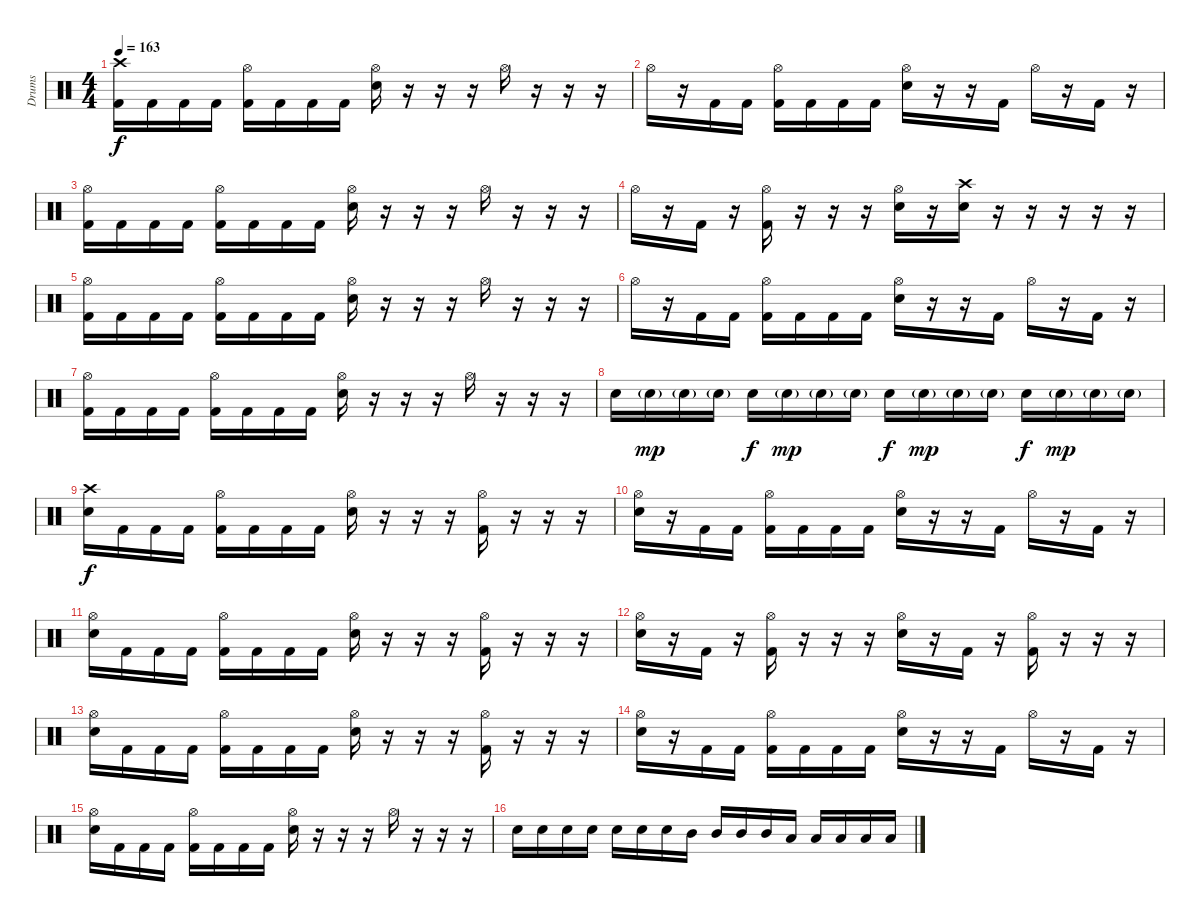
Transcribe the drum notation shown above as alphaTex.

\track ("Drums" "Drums") {instrument percussion}
\staff {score}
\articulation defaults
\ts (4 4)
\tempo 163
\clef neutral
\ks c
("Crash high (hit)" "Kick (hit) 2").16{dy f} "Kick (hit) 2".16 "Kick (hit) 2".16 "Kick (hit) 2".16 ("Hi-Hat (open)" "Kick (hit) 2").16 "Kick (hit) 2".16 "Kick (hit) 2".16 "Kick (hit) 2".16 ("Hi-Hat (open)" "Electric Snare (hit)").16 r.16 r.16 r.16 "Hi-Hat (open)".16 r.16 r.16 r.16 |
"Hi-Hat (open)".16 r.16 "Kick (hit) 2".16 "Kick (hit) 2".16 ("Hi-Hat (open)" "Kick (hit) 2").16 "Kick (hit) 2".16 "Kick (hit) 2".16 "Kick (hit) 2".16 ("Hi-Hat (open)" "Electric Snare (hit)").16 r.16 r.16 "Kick (hit) 2".16 "Hi-Hat (open)".16 r.16 "Kick (hit) 2".16 r.16 |
("Hi-Hat (open)" "Kick (hit) 2").16 "Kick (hit) 2".16 "Kick (hit) 2".16 "Kick (hit) 2".16 ("Hi-Hat (open)" "Kick (hit) 2").16 "Kick (hit) 2".16 "Kick (hit) 2".16 "Kick (hit) 2".16 ("Hi-Hat (open)" "Electric Snare (hit)").16 r.16 r.16 r.16 "Hi-Hat (open)".16 r.16 r.16 r.16 |
"Hi-Hat (open)".16 r.16 "Kick (hit) 2".16 r.16 ("Hi-Hat (open)" "Kick (hit) 2").16 r.16 r.16 r.16 ("Hi-Hat (open)" "Electric Snare (hit)").16 r.16 ("Crash high (hit)" "Electric Snare (hit)").16 r.16 r.16 r.16 r.16 r.16 |
("Hi-Hat (open)" "Kick (hit) 2").16 "Kick (hit) 2".16 "Kick (hit) 2".16 "Kick (hit) 2".16 ("Hi-Hat (open)" "Kick (hit) 2").16 "Kick (hit) 2".16 "Kick (hit) 2".16 "Kick (hit) 2".16 ("Hi-Hat (open)" "Electric Snare (hit)").16 r.16 r.16 r.16 "Hi-Hat (open)".16 r.16 r.16 r.16 |
"Hi-Hat (open)".16 r.16 "Kick (hit) 2".16 "Kick (hit) 2".16 ("Hi-Hat (open)" "Kick (hit) 2").16 "Kick (hit) 2".16 "Kick (hit) 2".16 "Kick (hit) 2".16 ("Hi-Hat (open)" "Electric Snare (hit)").16 r.16 r.16 "Kick (hit) 2".16 "Hi-Hat (open)".16 r.16 "Kick (hit) 2".16 r.16 |
("Hi-Hat (open)" "Kick (hit) 2").16 "Kick (hit) 2".16 "Kick (hit) 2".16 "Kick (hit) 2".16 ("Hi-Hat (open)" "Kick (hit) 2").16 "Kick (hit) 2".16 "Kick (hit) 2".16 "Kick (hit) 2".16 ("Hi-Hat (open)" "Electric Snare (hit)").16 r.16 r.16 r.16 "Hi-Hat (open)".16 r.16 r.16 r.16 |
"Electric Snare (hit)".16 "Electric Snare (hit)"{g}.16{dy mp} "Electric Snare (hit)"{g}.16 "Electric Snare (hit)"{g}.16 "Electric Snare (hit)".16{dy f} "Electric Snare (hit)"{g}.16{dy mp} "Electric Snare (hit)"{g}.16 "Electric Snare (hit)"{g}.16 "Electric Snare (hit)".16{dy f} "Electric Snare (hit)"{g}.16{dy mp} "Electric Snare (hit)"{g}.16 "Electric Snare (hit)"{g}.16 "Electric Snare (hit)".16{dy f} "Electric Snare (hit)"{g}.16{dy mp} "Electric Snare (hit)"{g}.16 "Electric Snare (hit)"{g}.16 |
("Crash high (hit)" "Electric Snare (hit)").16{dy f} "Kick (hit) 2".16 "Kick (hit) 2".16 "Kick (hit) 2".16 ("Hi-Hat (open)" "Kick (hit) 2").16 "Kick (hit) 2".16 "Kick (hit) 2".16 "Kick (hit) 2".16 ("Hi-Hat (open)" "Electric Snare (hit)").16 r.16 r.16 r.16 ("Hi-Hat (open)" "Kick (hit) 2").16 r.16 r.16 r.16 |
("Hi-Hat (open)" "Electric Snare (hit)").16 r.16 "Kick (hit) 2".16 "Kick (hit) 2".16 ("Hi-Hat (open)" "Kick (hit) 2").16 "Kick (hit) 2".16 "Kick (hit) 2".16 "Kick (hit) 2".16 ("Hi-Hat (open)" "Electric Snare (hit)").16 r.16 r.16 "Kick (hit) 2".16 "Hi-Hat (open)".16 r.16 "Kick (hit) 2".16 r.16 |
("Hi-Hat (open)" "Electric Snare (hit)").16 "Kick (hit) 2".16 "Kick (hit) 2".16 "Kick (hit) 2".16 ("Hi-Hat (open)" "Kick (hit) 2").16 "Kick (hit) 2".16 "Kick (hit) 2".16 "Kick (hit) 2".16 ("Hi-Hat (open)" "Electric Snare (hit)").16 r.16 r.16 r.16 ("Hi-Hat (open)" "Kick (hit) 2").16 r.16 r.16 r.16 |
("Hi-Hat (open)" "Electric Snare (hit)").16 r.16 "Kick (hit) 2".16 r.16 ("Hi-Hat (open)" "Kick (hit) 2").16 r.16 r.16 r.16 ("Hi-Hat (open)" "Electric Snare (hit)").16 r.16 "Kick (hit) 2".16 r.16 ("Hi-Hat (open)" "Kick (hit) 2").16 r.16 r.16 r.16 |
("Hi-Hat (open)" "Electric Snare (hit)").16 "Kick (hit) 2".16 "Kick (hit) 2".16 "Kick (hit) 2".16 ("Hi-Hat (open)" "Kick (hit) 2").16 "Kick (hit) 2".16 "Kick (hit) 2".16 "Kick (hit) 2".16 ("Hi-Hat (open)" "Electric Snare (hit)").16 r.16 r.16 r.16 ("Hi-Hat (open)" "Kick (hit) 2").16 r.16 r.16 r.16 |
("Hi-Hat (open)" "Electric Snare (hit)").16 r.16 "Kick (hit) 2".16 "Kick (hit) 2".16 ("Hi-Hat (open)" "Kick (hit) 2").16 "Kick (hit) 2".16 "Kick (hit) 2".16 "Kick (hit) 2".16 ("Hi-Hat (open)" "Electric Snare (hit)").16 r.16 r.16 "Kick (hit) 2".16 "Hi-Hat (open)".16 r.16 "Kick (hit) 2".16 r.16 |
("Hi-Hat (open)" "Electric Snare (hit)").16 "Kick (hit) 2".16 "Kick (hit) 2".16 "Kick (hit) 2".16 ("Hi-Hat (open)" "Kick (hit) 2").16 "Kick (hit) 2".16 "Kick (hit) 2".16 "Kick (hit) 2".16 ("Hi-Hat (open)" "Electric Snare (hit)").16 r.16 r.16 r.16 "Hi-Hat (open)".16 r.16 r.16 r.16 |
"Electric Snare (hit)".16 "Electric Snare (hit)".16 "Electric Snare (hit)".16 "Electric Snare (hit)".16 "Electric Snare (hit)".16 "Electric Snare (hit)".16 "Electric Snare (hit)".16 "Mid Tom (hit)".16 "Mid Tom (hit)".16 "Mid Tom (hit)".16 "Mid Tom (hit)".16 "Low Tom (hit)".16 "Low Tom (hit)".16 "Low Tom (hit)".16 "Low Tom (hit)".16 "Low Tom (hit)".16
